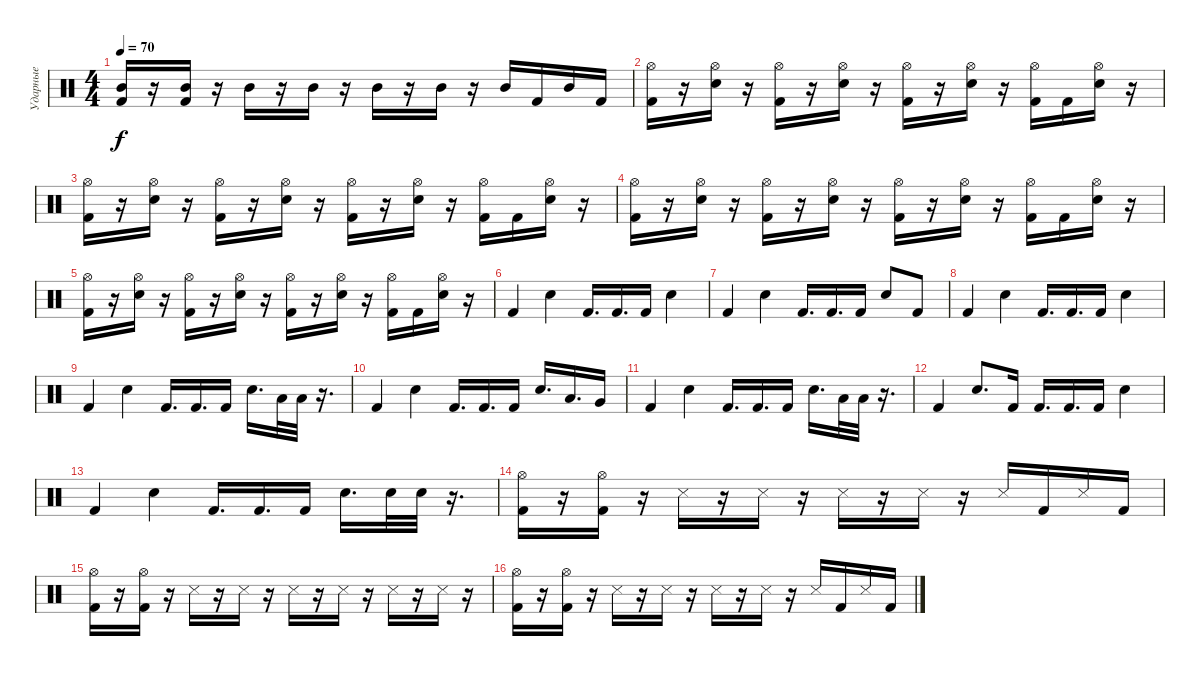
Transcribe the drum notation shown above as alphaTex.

\track ("Ударные" "Ударные") {instrument percussion}
\staff {score}
\articulation defaults
\ts (4 4)
\tempo 70
\clef neutral
\ks c
("Mid Tom (hit)" "Kick (hit) 2").16{dy f} r.16 ("Mid Tom (hit)" "Kick (hit) 2").16 r.16 "Mid Tom (hit)".16 r.16 "Mid Tom (hit)".16 r.16 "Mid Tom (hit)".16 r.16 "Mid Tom (hit)".16 r.16 "Mid Tom (hit)".16 "Kick (hit) 2".16 "Mid Tom (hit)".16 "Kick (hit) 2".16 |
("Hi-Hat (open)" "Kick (hit) 2").16 r.16 ("Hi-Hat (open)" "Electric Snare (hit)").16 r.16 ("Hi-Hat (open)" "Kick (hit) 2").16 r.16 ("Hi-Hat (open)" "Electric Snare (hit)").16 r.16 ("Hi-Hat (open)" "Kick (hit) 2").16 r.16 ("Hi-Hat (open)" "Electric Snare (hit)").16 r.16 ("Hi-Hat (open)" "Kick (hit) 2").16 "Kick (hit) 2".16 ("Hi-Hat (open)" "Electric Snare (hit)").16 r.16 |
("Hi-Hat (open)" "Kick (hit) 2").16 r.16 ("Hi-Hat (open)" "Electric Snare (hit)").16 r.16 ("Hi-Hat (open)" "Kick (hit) 2").16 r.16 ("Hi-Hat (open)" "Electric Snare (hit)").16 r.16 ("Hi-Hat (open)" "Kick (hit) 2").16 r.16 ("Hi-Hat (open)" "Electric Snare (hit)").16 r.16 ("Hi-Hat (open)" "Kick (hit) 2").16 "Kick (hit) 2".16 ("Hi-Hat (open)" "Electric Snare (hit)").16 r.16 |
("Hi-Hat (open)" "Kick (hit) 2").16 r.16 ("Hi-Hat (open)" "Electric Snare (hit)").16 r.16 ("Hi-Hat (open)" "Kick (hit) 2").16 r.16 ("Hi-Hat (open)" "Electric Snare (hit)").16 r.16 ("Hi-Hat (open)" "Kick (hit) 2").16 r.16 ("Hi-Hat (open)" "Electric Snare (hit)").16 r.16 ("Hi-Hat (open)" "Kick (hit) 2").16 "Kick (hit) 2".16 ("Hi-Hat (open)" "Electric Snare (hit)").16 r.16 |
("Hi-Hat (open)" "Kick (hit) 2").16 r.16 ("Hi-Hat (open)" "Electric Snare (hit)").16 r.16 ("Hi-Hat (open)" "Kick (hit) 2").16 r.16 ("Hi-Hat (open)" "Electric Snare (hit)").16 r.16 ("Hi-Hat (open)" "Kick (hit) 2").16 r.16 ("Hi-Hat (open)" "Electric Snare (hit)").16 r.16 ("Hi-Hat (open)" "Kick (hit) 2").16 "Kick (hit) 2".16 ("Hi-Hat (open)" "Electric Snare (hit)").16 r.16 |
"Kick (hit) 2".4 "Electric Snare (hit)".4 "Kick (hit) 2".16{d} "Kick (hit) 2".16{d} "Kick (hit) 2".16 "Electric Snare (hit)".4 |
"Kick (hit) 2".4 "Electric Snare (hit)".4 "Kick (hit) 2".16{d} "Kick (hit) 2".16{d} "Kick (hit) 2".16 "Electric Snare (hit)".8 "Kick (hit) 2".8 |
"Kick (hit) 2".4 "Electric Snare (hit)".4 "Kick (hit) 2".16{d} "Kick (hit) 2".16{d} "Kick (hit) 2".16 "Electric Snare (hit)".4 |
"Kick (hit) 2".4 "Electric Snare (hit)".4 "Kick (hit) 2".16{d} "Kick (hit) 2".16{d} "Kick (hit) 2".16 "Electric Snare (hit)".16{d} "Low Tom (hit)".32 "Low Tom (hit)".32 r.16{d} |
"Kick (hit) 2".4 "Electric Snare (hit)".4 "Kick (hit) 2".16{d} "Kick (hit) 2".16{d} "Kick (hit) 2".16 "Electric Snare (hit)".16{d} "Low Tom (hit)".16{d} "Very Low Tom (hit)".16 |
"Kick (hit) 2".4 "Electric Snare (hit)".4 "Kick (hit) 2".16{d} "Kick (hit) 2".16{d} "Kick (hit) 2".16 "Electric Snare (hit)".16{d} "Low Tom (hit)".32 "Low Tom (hit)".32 r.16{d} |
"Kick (hit) 2".4 "Electric Snare (hit)".8{d} "Kick (hit) 2".16 "Kick (hit) 2".16{d} "Kick (hit) 2".16{d} "Kick (hit) 2".16 "Electric Snare (hit)".4 |
"Kick (hit) 2".4 "Electric Snare (hit)".4 "Kick (hit) 2".16{d} "Kick (hit) 2".16{d} "Kick (hit) 2".16 "Electric Snare (hit)".16{d} "Electric Snare (hit)".32 "Electric Snare (hit)".32 r.16{d} |
("Hi-Hat (open)" "Kick (hit) 2").16 r.16 ("Hi-Hat (open)" "Kick (hit) 2").16 r.16 "Snare (side stick) 3".16 r.16 "Snare (side stick) 3".16 r.16 "Snare (side stick) 3".16 r.16 "Snare (side stick) 3".16 r.16 "Snare (side stick) 3".16 "Kick (hit) 2".16 "Snare (side stick) 3".16 "Kick (hit) 2".16 |
("Hi-Hat (open)" "Kick (hit) 2").16 r.16 ("Hi-Hat (open)" "Kick (hit) 2").16 r.16 "Snare (side stick) 3".16 r.16 "Snare (side stick) 3".16 r.16 "Snare (side stick) 3".16 r.16 "Snare (side stick) 3".16 r.16 "Snare (side stick) 3".16 r.16 "Snare (side stick) 3".16 r.16 |
("Hi-Hat (open)" "Kick (hit) 2").16 r.16 ("Hi-Hat (open)" "Kick (hit) 2").16 r.16 "Snare (side stick) 3".16 r.16 "Snare (side stick) 3".16 r.16 "Snare (side stick) 3".16 r.16 "Snare (side stick) 3".16 r.16 "Snare (side stick) 3".16 "Kick (hit) 2".16 "Snare (side stick) 3".16 "Kick (hit) 2".16
